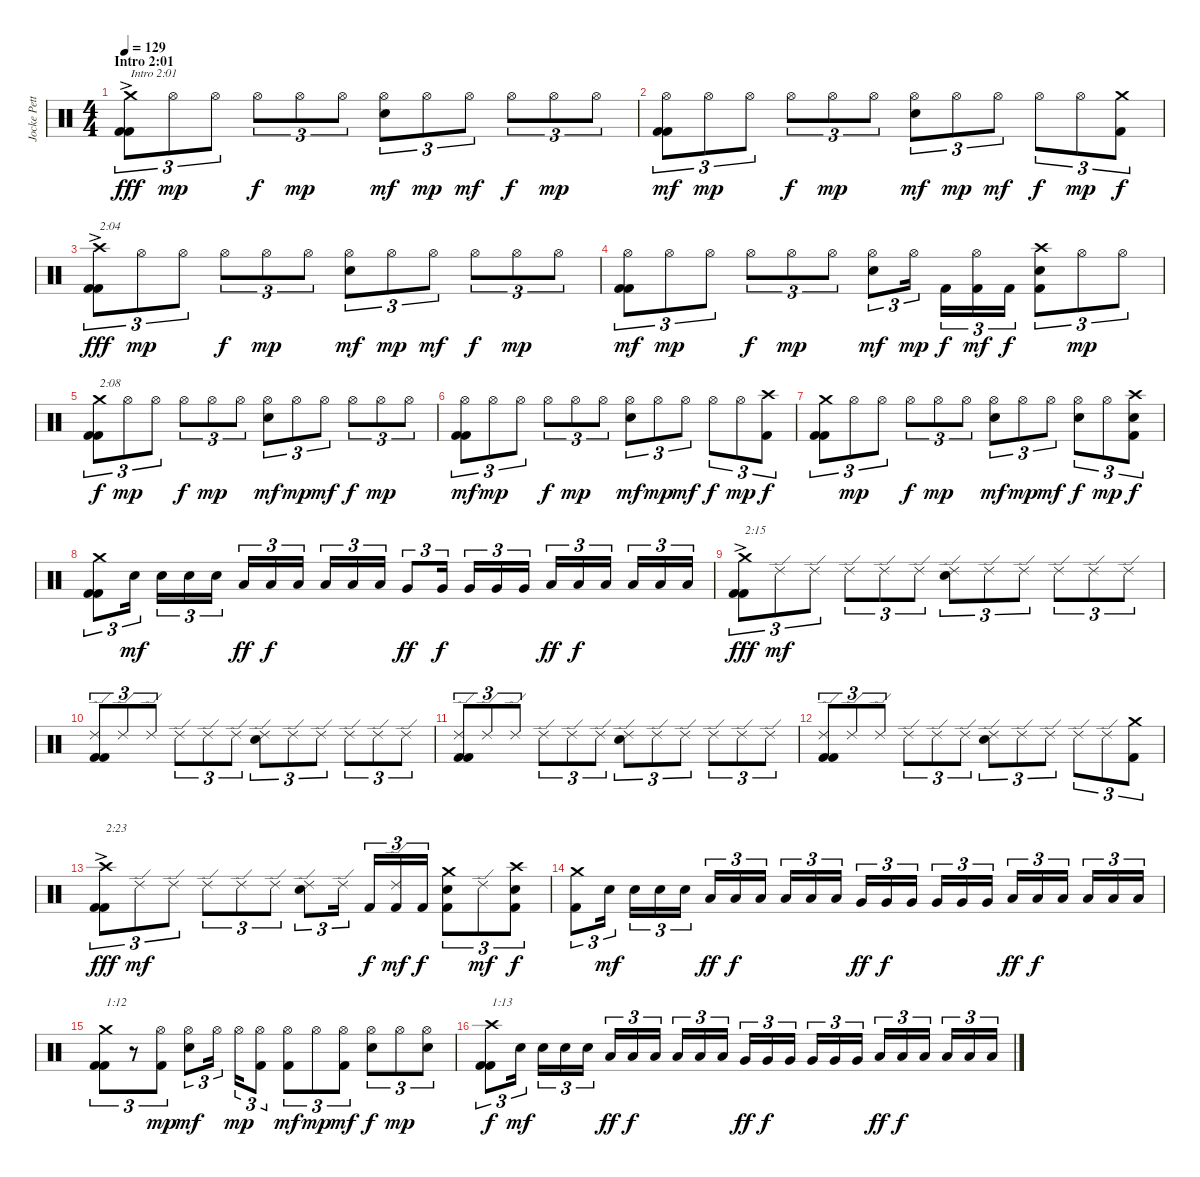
\track ("Jocke Pettersson" "Jocke Pett") {instrument percussion}
\staff {score}
\articulation defaults
\ts (4 4)
\section ("" "Intro 2:01")
\tempo 129
\clef neutral
\ks c
("Kick (hit) 2" "Kick (hit) 2" "Crash medium (hit)"{ac}).8{tu (3 2) txt "Intro 2:01" dy fff} "Hi-Hat (open)".8{tu (3 2) dy mp} "Hi-Hat (open)".8{tu (3 2)} "Hi-Hat (open)".8{tu (3 2) dy f} "Hi-Hat (open)".8{tu (3 2) dy mp} "Hi-Hat (open)".8{tu (3 2)} ("Electric Snare (hit)" "Hi-Hat (open)").8{tu (3 2) dy mf} "Hi-Hat (open)".8{tu (3 2) dy mp} "Hi-Hat (open)".8{tu (3 2) dy mf} "Hi-Hat (open)".8{tu (3 2) dy f} "Hi-Hat (open)".8{tu (3 2) dy mp} "Hi-Hat (open)".8{tu (3 2)} |
("Kick (hit) 2" "Kick (hit) 2" "Hi-Hat (open)").8{tu (3 2) dy mf} "Hi-Hat (open)".8{tu (3 2) dy mp} "Hi-Hat (open)".8{tu (3 2)} "Hi-Hat (open)".8{tu (3 2) dy f} "Hi-Hat (open)".8{tu (3 2) dy mp} "Hi-Hat (open)".8{tu (3 2)} ("Electric Snare (hit)" "Hi-Hat (open)").8{tu (3 2) dy mf} "Hi-Hat (open)".8{tu (3 2) dy mp} "Hi-Hat (open)".8{tu (3 2) dy mf} "Hi-Hat (open)".8{tu (3 2) dy f} "Hi-Hat (open)".8{tu (3 2) dy mp} ("Kick (hit) 2" "Crash medium (hit)").8{tu (3 2) dy f} |
("Kick (hit) 2" "Kick (hit) 2" "Crash high (hit)"{ac}).8{tu (3 2) txt "2:04" dy fff} "Hi-Hat (open)".8{tu (3 2) dy mp} "Hi-Hat (open)".8{tu (3 2)} "Hi-Hat (open)".8{tu (3 2) dy f} "Hi-Hat (open)".8{tu (3 2) dy mp} "Hi-Hat (open)".8{tu (3 2)} ("Electric Snare (hit)" "Hi-Hat (open)").8{tu (3 2) dy mf} "Hi-Hat (open)".8{tu (3 2) dy mp} "Hi-Hat (open)".8{tu (3 2) dy mf} "Hi-Hat (open)".8{tu (3 2) dy f} "Hi-Hat (open)".8{tu (3 2) dy mp} "Hi-Hat (open)".8{tu (3 2)} |
("Kick (hit) 2" "Kick (hit) 2" "Hi-Hat (open)").8{tu (3 2) dy mf} "Hi-Hat (open)".8{tu (3 2) dy mp} "Hi-Hat (open)".8{tu (3 2)} "Hi-Hat (open)".8{tu (3 2) dy f} "Hi-Hat (open)".8{tu (3 2) dy mp} "Hi-Hat (open)".8{tu (3 2)} ("Electric Snare (hit)" "Hi-Hat (open)").8{tu (3 2) dy mf} "Hi-Hat (open)".16{tu (3 2) dy mp} "Kick (hit) 2".16{tu (3 2) dy f} ("Kick (hit) 2" "Hi-Hat (open)").16{tu (3 2) dy mf} "Kick (hit) 2".16{tu (3 2) dy f} ("Kick (hit) 2" "Electric Snare (hit)" "Crash high (hit)").8{tu (3 2)} "Hi-Hat (open)".8{tu (3 2) dy mp} "Hi-Hat (open)".8{tu (3 2)} |
("Kick (hit) 2" "Kick (hit) 2" "Crash medium (hit)").8{tu (3 2) txt "2:08" dy f} "Hi-Hat (open)".8{tu (3 2) dy mp} "Hi-Hat (open)".8{tu (3 2)} "Hi-Hat (open)".8{tu (3 2) dy f} "Hi-Hat (open)".8{tu (3 2) dy mp} "Hi-Hat (open)".8{tu (3 2)} ("Electric Snare (hit)" "Hi-Hat (open)").8{tu (3 2) dy mf} "Hi-Hat (open)".8{tu (3 2) dy mp} "Hi-Hat (open)".8{tu (3 2) dy mf} "Hi-Hat (open)".8{tu (3 2) dy f} "Hi-Hat (open)".8{tu (3 2) dy mp} "Hi-Hat (open)".8{tu (3 2)} |
("Kick (hit) 2" "Kick (hit) 2" "Hi-Hat (open)").8{tu (3 2) dy mf} "Hi-Hat (open)".8{tu (3 2) dy mp} "Hi-Hat (open)".8{tu (3 2)} "Hi-Hat (open)".8{tu (3 2) dy f} "Hi-Hat (open)".8{tu (3 2) dy mp} "Hi-Hat (open)".8{tu (3 2)} ("Electric Snare (hit)" "Hi-Hat (open)").8{tu (3 2) dy mf} "Hi-Hat (open)".8{tu (3 2) dy mp} "Hi-Hat (open)".8{tu (3 2) dy mf} "Hi-Hat (open)".8{tu (3 2) dy f} "Hi-Hat (open)".8{tu (3 2) dy mp} ("Kick (hit) 2" "Crash high (hit)").8{tu (3 2) dy f} |
("Kick (hit) 2" "Kick (hit) 2" "Crash medium (hit)").8{tu (3 2)} "Hi-Hat (open)".8{tu (3 2) dy mp} "Hi-Hat (open)".8{tu (3 2)} "Hi-Hat (open)".8{tu (3 2) dy f} "Hi-Hat (open)".8{tu (3 2) dy mp} "Hi-Hat (open)".8{tu (3 2)} ("Electric Snare (hit)" "Hi-Hat (open)").8{tu (3 2) dy mf} "Hi-Hat (open)".8{tu (3 2) dy mp} "Hi-Hat (open)".8{tu (3 2) dy mf} ("Electric Snare (hit)" "Hi-Hat (open)").8{tu (3 2) dy f} "Hi-Hat (open)".8{tu (3 2) dy mp} ("Kick (hit) 2" "Electric Snare (hit)" "Crash high (hit)").8{tu (3 2) dy f} |
("Kick (hit) 2" "Kick (hit) 2" "Crash medium (hit)").8{tu (3 2)} "Electric Snare (hit)".16{tu (3 2) dy mf} "Electric Snare (hit)".16{tu (3 2)} "Electric Snare (hit)".16{tu (3 2)} "Electric Snare (hit)".16{tu (3 2)} "Low Tom (hit)".16{tu (3 2) dy ff} "Low Tom (hit)".16{tu (3 2) dy f} "Low Tom (hit)".16{tu (3 2)} "Low Tom (hit)".16{tu (3 2)} "Low Tom (hit)".16{tu (3 2)} "Low Tom (hit)".16{tu (3 2)} "Very Low Tom (hit)".8{tu (3 2) dy ff} "Very Low Tom (hit)".16{tu (3 2) dy f} "Very Low Tom (hit)".16{tu (3 2)} "Very Low Tom (hit)".16{tu (3 2)} "Very Low Tom (hit)".16{tu (3 2)} "Low Tom (hit)".16{tu (3 2) dy ff} "Low Tom (hit)".16{tu (3 2) dy f} "Low Tom (hit)".16{tu (3 2)} "Low Tom (hit)".16{tu (3 2)} "Low Tom (hit)".16{tu (3 2)} "Low Tom (hit)".16{tu (3 2)} |
("Kick (hit) 2" "Kick (hit) 2" "Crash medium (hit)"{ac}).8{tu (3 2) txt "2:15" dy fff} "Ride (edge) 2".8{tu (3 2) dy mf} "Ride (edge) 2".8{tu (3 2)} "Ride (edge) 2".8{tu (3 2)} "Ride (edge) 2".8{tu (3 2)} "Ride (edge) 2".8{tu (3 2)} ("Electric Snare (hit)" "Ride (edge) 2").8{tu (3 2)} "Ride (edge) 2".8{tu (3 2)} "Ride (edge) 2".8{tu (3 2)} "Ride (edge) 2".8{tu (3 2)} "Ride (edge) 2".8{tu (3 2)} "Ride (edge) 2".8{tu (3 2)} |
("Kick (hit) 2" "Kick (hit) 2" "Ride (edge) 2").8{tu (3 2)} "Ride (edge) 2".8{tu (3 2)} "Ride (edge) 2".8{tu (3 2)} "Ride (edge) 2".8{tu (3 2)} "Ride (edge) 2".8{tu (3 2)} "Ride (edge) 2".8{tu (3 2)} ("Electric Snare (hit)" "Ride (edge) 2").8{tu (3 2)} "Ride (edge) 2".8{tu (3 2)} "Ride (edge) 2".8{tu (3 2)} "Ride (edge) 2".8{tu (3 2)} "Ride (edge) 2".8{tu (3 2)} "Ride (edge) 2".8{tu (3 2)} |
("Kick (hit) 2" "Kick (hit) 2" "Ride (edge) 2").8{tu (3 2)} "Ride (edge) 2".8{tu (3 2)} "Ride (edge) 2".8{tu (3 2)} "Ride (edge) 2".8{tu (3 2)} "Ride (edge) 2".8{tu (3 2)} "Ride (edge) 2".8{tu (3 2)} ("Electric Snare (hit)" "Ride (edge) 2").8{tu (3 2)} "Ride (edge) 2".8{tu (3 2)} "Ride (edge) 2".8{tu (3 2)} "Ride (edge) 2".8{tu (3 2)} "Ride (edge) 2".8{tu (3 2)} "Ride (edge) 2".8{tu (3 2)} |
("Kick (hit) 2" "Kick (hit) 2" "Ride (edge) 2").8{tu (3 2)} "Ride (edge) 2".8{tu (3 2)} "Ride (edge) 2".8{tu (3 2)} "Ride (edge) 2".8{tu (3 2)} "Ride (edge) 2".8{tu (3 2)} "Ride (edge) 2".8{tu (3 2)} ("Electric Snare (hit)" "Ride (edge) 2").8{tu (3 2)} "Ride (edge) 2".8{tu (3 2)} "Ride (edge) 2".8{tu (3 2)} "Ride (edge) 2".8{tu (3 2)} "Ride (edge) 2".8{tu (3 2)} ("Kick (hit) 2" "Crash medium (hit)").8{tu (3 2)} |
("Kick (hit) 2" "Kick (hit) 2" "Crash high (hit)"{ac}).8{tu (3 2) txt "2:23" dy fff} "Ride (edge) 2".8{tu (3 2) dy mf} "Ride (edge) 2".8{tu (3 2)} "Ride (edge) 2".8{tu (3 2)} "Ride (edge) 2".8{tu (3 2)} "Ride (edge) 2".8{tu (3 2)} ("Electric Snare (hit)" "Ride (edge) 2").8{tu (3 2)} "Ride (edge) 2".16{tu (3 2)} "Kick (hit) 2".16{tu (3 2) dy f} ("Kick (hit) 2" "Ride (edge) 2").16{tu (3 2) dy mf} "Kick (hit) 2".16{tu (3 2) dy f} ("Kick (hit) 2" "Electric Snare (hit)" "Crash medium (hit)").8{tu (3 2)} "Ride (edge) 2".8{tu (3 2) dy mf} ("Kick (hit) 2" "Electric Snare (hit)" "Crash high (hit)").8{tu (3 2) dy f} |
("Kick (hit) 2" "Crash medium (hit)").8{tu (3 2)} "Electric Snare (hit)".16{tu (3 2) dy mf} "Electric Snare (hit)".16{tu (3 2)} "Electric Snare (hit)".16{tu (3 2)} "Electric Snare (hit)".16{tu (3 2)} "Low Tom (hit)".16{tu (3 2) dy ff} "Low Tom (hit)".16{tu (3 2) dy f} "Low Tom (hit)".16{tu (3 2)} "Low Tom (hit)".16{tu (3 2)} "Low Tom (hit)".16{tu (3 2)} "Low Tom (hit)".16{tu (3 2)} "Very Low Tom (hit)".16{tu (3 2) dy ff} "Very Low Tom (hit)".16{tu (3 2) dy f} "Very Low Tom (hit)".16{tu (3 2)} "Very Low Tom (hit)".16{tu (3 2)} "Very Low Tom (hit)".16{tu (3 2)} "Very Low Tom (hit)".16{tu (3 2)} "Low Floor Tom (hit)".16{tu (3 2) dy ff} "Low Floor Tom (hit)".16{tu (3 2) dy f} "Low Floor Tom (hit)".16{tu (3 2)} "Low Floor Tom (hit)".16{tu (3 2)} "Low Floor Tom (hit)".16{tu (3 2)} "Low Floor Tom (hit)".16{tu (3 2)} |
("Kick (hit) 2" "Kick (hit) 2" "Crash medium (hit)").8{tu (3 2) txt "1:12"} r.8{tu (3 2)} ("Kick (hit) 2" "Hi-Hat (open)").8{tu (3 2) dy mp} ("Electric Snare (hit)" "Hi-Hat (open)").8{tu (3 2) dy mf} "Hi-Hat (open)".16{tu (3 2)} "Hi-Hat (open)".16{tu (3 2) dy mp} ("Kick (hit) 2" "Hi-Hat (open)").8{tu (3 2)} ("Kick (hit) 2" "Hi-Hat (open)").8{tu (3 2) dy mf} "Hi-Hat (open)".8{tu (3 2) dy mp} ("Kick (hit) 2" "Hi-Hat (open)").8{tu (3 2) dy mf} ("Electric Snare (hit)" "Hi-Hat (open)").8{tu (3 2) dy f} "Hi-Hat (open)".8{tu (3 2) dy mp} ("Electric Snare (hit)" "Hi-Hat (open)").8{tu (3 2)} |
("Kick (hit) 2" "Kick (hit) 2" "Crash high (hit)").8{tu (3 2) txt "1:13" dy f} "Electric Snare (hit)".16{tu (3 2) dy mf} "Electric Snare (hit)".16{tu (3 2)} "Electric Snare (hit)".16{tu (3 2)} "Electric Snare (hit)".16{tu (3 2)} "Low Tom (hit)".16{tu (3 2) dy ff} "Low Tom (hit)".16{tu (3 2) dy f} "Low Tom (hit)".16{tu (3 2)} "Low Tom (hit)".16{tu (3 2)} "Low Tom (hit)".16{tu (3 2)} "Low Tom (hit)".16{tu (3 2)} "Very Low Tom (hit)".16{tu (3 2) dy ff} "Very Low Tom (hit)".16{tu (3 2) dy f} "Very Low Tom (hit)".16{tu (3 2)} "Very Low Tom (hit)".16{tu (3 2)} "Very Low Tom (hit)".16{tu (3 2)} "Very Low Tom (hit)".16{tu (3 2)} "Low Floor Tom (hit)".16{tu (3 2) dy ff} "Low Floor Tom (hit)".16{tu (3 2) dy f} "Low Floor Tom (hit)".16{tu (3 2)} "Low Floor Tom (hit)".16{tu (3 2)} "Low Floor Tom (hit)".16{tu (3 2)} "Low Floor Tom (hit)".16{tu (3 2)}
